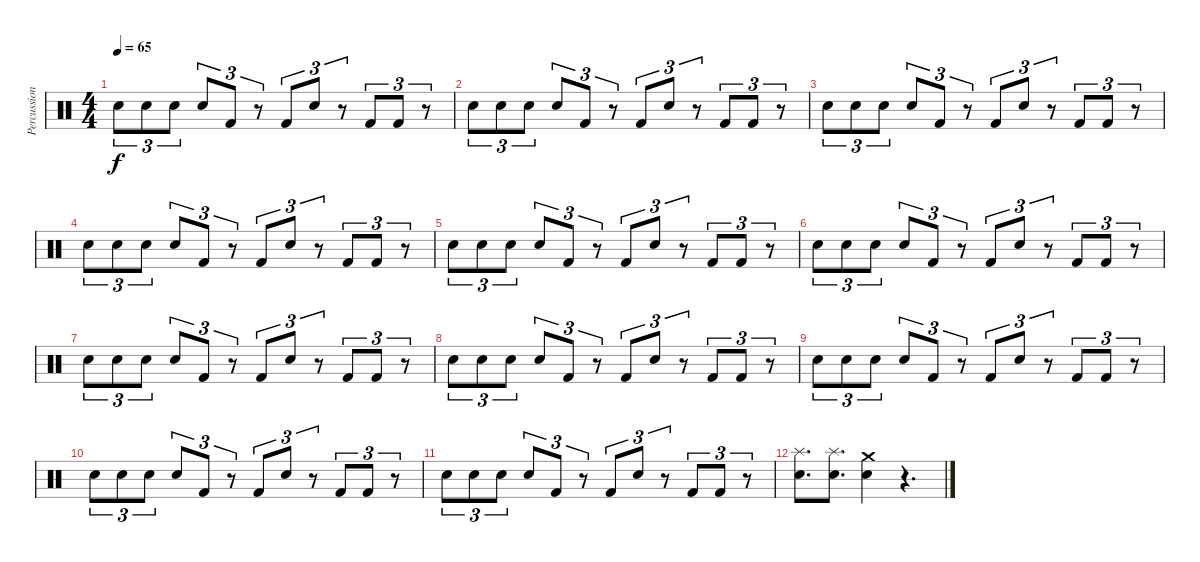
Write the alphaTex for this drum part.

\track ("Percussions" "Percussion") {instrument percussion}
\staff {score}
\articulation defaults
\ts (4 4)
\tempo 65
\clef neutral
\ks c "Electric Snare (hit)".8{tu (3 2) dy f} "Electric Snare (hit)".8{tu (3 2)} "Electric Snare (hit)".8{tu (3 2)} "Electric Snare (hit)".8{tu (3 2)} "Kick (hit) 2".8{tu (3 2)}
r.8{tu (3 2)} "Kick (hit) 2".8{tu (3 2)} "Electric Snare (hit)".8{tu (3 2)} r.8{tu (3 2)} "Kick (hit) 2".8{tu (3 2)} "Kick (hit) 2".8{tu (3 2)} r.8{tu (3 2)} |
"Electric Snare (hit)".8{tu (3 2)} "Electric Snare (hit)".8{tu (3 2)} "Electric Snare (hit)".8{tu (3 2)} "Electric Snare (hit)".8{tu (3 2)} "Kick (hit) 2".8{tu (3 2)} r.8{tu (3 2)} "Kick (hit) 2".8{tu (3 2)} "Electric Snare (hit)".8{tu (3 2)} r.8{tu (3 2)} "Kick (hit) 2".8{tu (3 2)} "Kick (hit) 2".8{tu (3 2)} r.8{tu (3 2)} |
"Electric Snare (hit)".8{tu (3 2)} "Electric Snare (hit)".8{tu (3 2)} "Electric Snare (hit)".8{tu (3 2)} "Electric Snare (hit)".8{tu (3 2)} "Kick (hit) 2".8{tu (3 2)} r.8{tu (3 2)} "Kick (hit) 2".8{tu (3 2)} "Electric Snare (hit)".8{tu (3 2)} r.8{tu (3 2)} "Kick (hit) 2".8{tu (3 2)} "Kick (hit) 2".8{tu (3 2)} r.8{tu (3 2)} |
"Electric Snare (hit)".8{tu (3 2)} "Electric Snare (hit)".8{tu (3 2)} "Electric Snare (hit)".8{tu (3 2)} "Electric Snare (hit)".8{tu (3 2)} "Kick (hit) 2".8{tu (3 2)} r.8{tu (3 2)} "Kick (hit) 2".8{tu (3 2)} "Electric Snare (hit)".8{tu (3 2)} r.8{tu (3 2)} "Kick (hit) 2".8{tu (3 2)} "Kick (hit) 2".8{tu (3 2)} r.8{tu (3 2)} |
"Electric Snare (hit)".8{tu (3 2)} "Electric Snare (hit)".8{tu (3 2)} "Electric Snare (hit)".8{tu (3 2)} "Electric Snare (hit)".8{tu (3 2)} "Kick (hit) 2".8{tu (3 2)} r.8{tu (3 2)} "Kick (hit) 2".8{tu (3 2)} "Electric Snare (hit)".8{tu (3 2)} r.8{tu (3 2)} "Kick (hit) 2".8{tu (3 2)} "Kick (hit) 2".8{tu (3 2)} r.8{tu (3 2)} |
"Electric Snare (hit)".8{tu (3 2)} "Electric Snare (hit)".8{tu (3 2)} "Electric Snare (hit)".8{tu (3 2)} "Electric Snare (hit)".8{tu (3 2)} "Kick (hit) 2".8{tu (3 2)} r.8{tu (3 2)} "Kick (hit) 2".8{tu (3 2)} "Electric Snare (hit)".8{tu (3 2)} r.8{tu (3 2)} "Kick (hit) 2".8{tu (3 2)} "Kick (hit) 2".8{tu (3 2)} r.8{tu (3 2)} |
"Electric Snare (hit)".8{tu (3 2)} "Electric Snare (hit)".8{tu (3 2)} "Electric Snare (hit)".8{tu (3 2)} "Electric Snare (hit)".8{tu (3 2)} "Kick (hit) 2".8{tu (3 2)} r.8{tu (3 2)} "Kick (hit) 2".8{tu (3 2)} "Electric Snare (hit)".8{tu (3 2)} r.8{tu (3 2)} "Kick (hit) 2".8{tu (3 2)} "Kick (hit) 2".8{tu (3 2)} r.8{tu (3 2)} |
"Electric Snare (hit)".8{tu (3 2)} "Electric Snare (hit)".8{tu (3 2)} "Electric Snare (hit)".8{tu (3 2)} "Electric Snare (hit)".8{tu (3 2)} "Kick (hit) 2".8{tu (3 2)} r.8{tu (3 2)} "Kick (hit) 2".8{tu (3 2)} "Electric Snare (hit)".8{tu (3 2)} r.8{tu (3 2)} "Kick (hit) 2".8{tu (3 2)} "Kick (hit) 2".8{tu (3 2)} r.8{tu (3 2)} |
"Electric Snare (hit)".8{tu (3 2)} "Electric Snare (hit)".8{tu (3 2)} "Electric Snare (hit)".8{tu (3 2)} "Electric Snare (hit)".8{tu (3 2)} "Kick (hit) 2".8{tu (3 2)} r.8{tu (3 2)} "Kick (hit) 2".8{tu (3 2)} "Electric Snare (hit)".8{tu (3 2)} r.8{tu (3 2)} "Kick (hit) 2".8{tu (3 2)} "Kick (hit) 2".8{tu (3 2)} r.8{tu (3 2)} |
"Electric Snare (hit)".8{tu (3 2)} "Electric Snare (hit)".8{tu (3 2)} "Electric Snare (hit)".8{tu (3 2)} "Electric Snare (hit)".8{tu (3 2)} "Kick (hit) 2".8{tu (3 2)} r.8{tu (3 2)} "Kick (hit) 2".8{tu (3 2)} "Electric Snare (hit)".8{tu (3 2)} r.8{tu (3 2)} "Kick (hit) 2".8{tu (3 2)} "Kick (hit) 2".8{tu (3 2)} r.8{tu (3 2)} |
"Electric Snare (hit)".8{tu (3 2)} "Electric Snare (hit)".8{tu (3 2)} "Electric Snare (hit)".8{tu (3 2)} "Electric Snare (hit)".8{tu (3 2)} "Kick (hit) 2".8{tu (3 2)} r.8{tu (3 2)} "Kick (hit) 2".8{tu (3 2)} "Electric Snare (hit)".8{tu (3 2)} r.8{tu (3 2)} "Kick (hit) 2".8{tu (3 2)} "Kick (hit) 2".8{tu (3 2)} r.8{tu (3 2)} |
("Splash (hit)" "Electric Snare (hit)").8{d} ("Splash (hit)" "Electric Snare (hit)").8{d} ("Crash medium (hit)" "Electric Snare (hit)").4 r.4{d}
